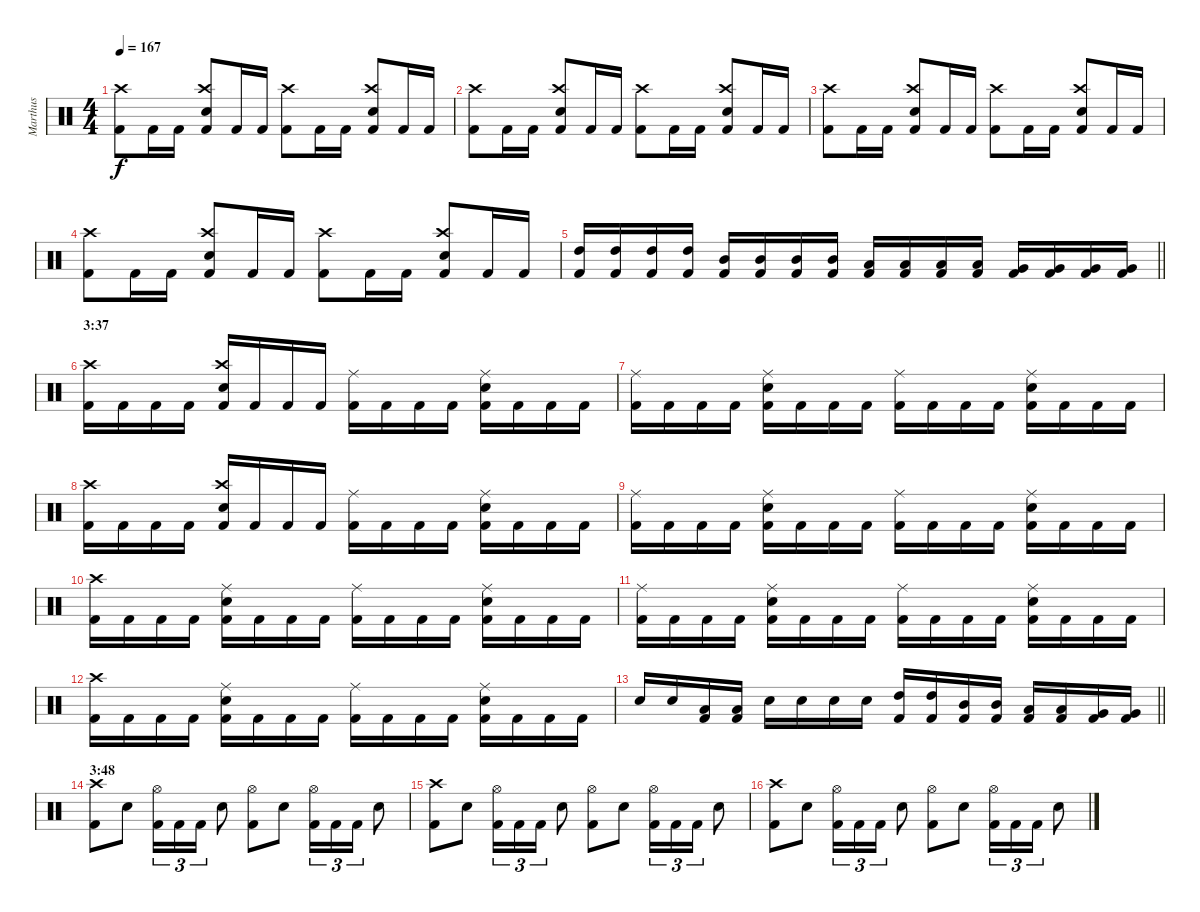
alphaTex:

\track ("Marthus" "Marthus") {instrument percussion}
\staff {score}
\articulation defaults
\ts (4 4)
\tempo 167
\clef neutral
\ks c
("Kick (hit) 2" "Crash high (hit)").8{dy f} "Kick (hit) 2".16 "Kick (hit) 2".16 ("Kick (hit) 2" "Snare (hit) 2" "Crash high (hit)").8 "Kick (hit) 2".16 "Kick (hit) 2".16 ("Kick (hit) 2" "Crash high (hit)").8 "Kick (hit) 2".16 "Kick (hit) 2".16 ("Kick (hit) 2" "Snare (hit) 2" "Crash high (hit)").8 "Kick (hit) 2".16 "Kick (hit) 2".16 |
("Kick (hit) 2" "Crash high (hit)").8 "Kick (hit) 2".16 "Kick (hit) 2".16 ("Kick (hit) 2" "Snare (hit) 2" "Crash high (hit)").8 "Kick (hit) 2".16 "Kick (hit) 2".16 ("Kick (hit) 2" "Crash high (hit)").8 "Kick (hit) 2".16 "Kick (hit) 2".16 ("Kick (hit) 2" "Snare (hit) 2" "Crash high (hit)").8 "Kick (hit) 2".16 "Kick (hit) 2".16 |
("Kick (hit) 2" "Crash high (hit)").8 "Kick (hit) 2".16 "Kick (hit) 2".16 ("Kick (hit) 2" "Snare (hit) 2" "Crash high (hit)").8 "Kick (hit) 2".16 "Kick (hit) 2".16 ("Kick (hit) 2" "Crash high (hit)").8 "Kick (hit) 2".16 "Kick (hit) 2".16 ("Kick (hit) 2" "Snare (hit) 2" "Crash high (hit)").8 "Kick (hit) 2".16 "Kick (hit) 2".16 |
("Kick (hit) 2" "Crash high (hit)").8 "Kick (hit) 2".16 "Kick (hit) 2".16 ("Kick (hit) 2" "Snare (hit) 2" "Crash high (hit)").8 "Kick (hit) 2".16 "Kick (hit) 2".16 ("Kick (hit) 2" "Crash high (hit)").8 "Kick (hit) 2".16 "Kick (hit) 2".16 ("Kick (hit) 2" "Snare (hit) 2" "Crash high (hit)").8 "Kick (hit) 2".16 "Kick (hit) 2".16 |
\barLineRight lightlight
("Kick (hit) 2" "High Tom (hit)").16 ("Kick (hit) 2" "High Tom (hit)").16 ("Kick (hit) 2" "High Tom (hit)").16 ("Kick (hit) 2" "High Tom (hit)").16 ("Kick (hit) 2" "Mid Tom (hit)").16 ("Kick (hit) 2" "Mid Tom (hit)").16 ("Kick (hit) 2" "Mid Tom (hit)").16 ("Kick (hit) 2" "Mid Tom (hit)").16 ("Kick (hit) 2" "Low Tom (hit)").16 ("Kick (hit) 2" "Low Tom (hit)").16 ("Kick (hit) 2" "Low Tom (hit)").16 ("Kick (hit) 2" "Low Tom (hit)").16 ("Kick (hit) 2" "Very Low Tom (hit)").16 ("Kick (hit) 2" "Very Low Tom (hit)").16 ("Kick (hit) 2" "Very Low Tom (hit)").16 ("Kick (hit) 2" "Very Low Tom (hit)").16 |
\section ("" "3:37")
("Kick (hit) 2" "Crash high (hit)").16 "Kick (hit) 2".16 "Kick (hit) 2".16 "Kick (hit) 2".16 ("Kick (hit) 2" "Snare (hit) 2" "Crash high (hit)").16 "Kick (hit) 2".16 "Kick (hit) 2".16 "Kick (hit) 2".16 ("Kick (hit) 2" "Ride (middle)").16 "Kick (hit) 2".16 "Kick (hit) 2".16 "Kick (hit) 2".16 ("Kick (hit) 2" "Snare (hit) 2" "Ride (middle)").16 "Kick (hit) 2".16 "Kick (hit) 2".16 "Kick (hit) 2".16 |
("Kick (hit) 2" "Ride (middle)").16 "Kick (hit) 2".16 "Kick (hit) 2".16 "Kick (hit) 2".16 ("Kick (hit) 2" "Snare (hit) 2" "Ride (middle)").16 "Kick (hit) 2".16 "Kick (hit) 2".16 "Kick (hit) 2".16 ("Kick (hit) 2" "Ride (middle)").16 "Kick (hit) 2".16 "Kick (hit) 2".16 "Kick (hit) 2".16 ("Kick (hit) 2" "Snare (hit) 2" "Ride (middle)").16 "Kick (hit) 2".16 "Kick (hit) 2".16 "Kick (hit) 2".16 |
("Kick (hit) 2" "Crash high (hit)").16 "Kick (hit) 2".16 "Kick (hit) 2".16 "Kick (hit) 2".16 ("Kick (hit) 2" "Snare (hit) 2" "Crash high (hit)").16 "Kick (hit) 2".16 "Kick (hit) 2".16 "Kick (hit) 2".16 ("Kick (hit) 2" "Ride (middle)").16 "Kick (hit) 2".16 "Kick (hit) 2".16 "Kick (hit) 2".16 ("Kick (hit) 2" "Snare (hit) 2" "Ride (middle)").16 "Kick (hit) 2".16 "Kick (hit) 2".16 "Kick (hit) 2".16 |
("Kick (hit) 2" "Ride (middle)").16 "Kick (hit) 2".16 "Kick (hit) 2".16 "Kick (hit) 2".16 ("Kick (hit) 2" "Snare (hit) 2" "Ride (middle)").16 "Kick (hit) 2".16 "Kick (hit) 2".16 "Kick (hit) 2".16 ("Kick (hit) 2" "Ride (middle)").16 "Kick (hit) 2".16 "Kick (hit) 2".16 "Kick (hit) 2".16 ("Kick (hit) 2" "Snare (hit) 2" "Ride (middle)").16 "Kick (hit) 2".16 "Kick (hit) 2".16 "Kick (hit) 2".16 |
("Kick (hit) 2" "Crash high (hit)").16 "Kick (hit) 2".16 "Kick (hit) 2".16 "Kick (hit) 2".16 ("Kick (hit) 2" "Snare (hit) 2" "Ride (middle)").16 "Kick (hit) 2".16 "Kick (hit) 2".16 "Kick (hit) 2".16 ("Kick (hit) 2" "Ride (middle)").16 "Kick (hit) 2".16 "Kick (hit) 2".16 "Kick (hit) 2".16 ("Kick (hit) 2" "Snare (hit) 2" "Ride (middle)").16 "Kick (hit) 2".16 "Kick (hit) 2".16 "Kick (hit) 2".16 |
("Kick (hit) 2" "Ride (middle)").16 "Kick (hit) 2".16 "Kick (hit) 2".16 "Kick (hit) 2".16 ("Kick (hit) 2" "Snare (hit) 2" "Ride (middle)").16 "Kick (hit) 2".16 "Kick (hit) 2".16 "Kick (hit) 2".16 ("Kick (hit) 2" "Ride (middle)").16 "Kick (hit) 2".16 "Kick (hit) 2".16 "Kick (hit) 2".16 ("Kick (hit) 2" "Snare (hit) 2" "Ride (middle)").16 "Kick (hit) 2".16 "Kick (hit) 2".16 "Kick (hit) 2".16 |
("Kick (hit) 2" "Crash high (hit)").16 "Kick (hit) 2".16 "Kick (hit) 2".16 "Kick (hit) 2".16 ("Kick (hit) 2" "Snare (hit) 2" "Ride (middle)").16 "Kick (hit) 2".16 "Kick (hit) 2".16 "Kick (hit) 2".16 ("Kick (hit) 2" "Ride (middle)").16 "Kick (hit) 2".16 "Kick (hit) 2".16 "Kick (hit) 2".16 ("Kick (hit) 2" "Snare (hit) 2" "Ride (middle)").16 "Kick (hit) 2".16 "Kick (hit) 2".16 "Kick (hit) 2".16 |
\barLineRight lightlight "Snare (hit) 2".16 "Snare (hit) 2".16
("Kick (hit) 2" "Low Tom (hit)").16 ("Kick (hit) 2" "Low Tom (hit)").16 "Snare (hit) 2".16 "Snare (hit) 2".16 "Snare (hit) 2".16 "Snare (hit) 2".16 ("Kick (hit) 2" "High Tom (hit)").16 ("Kick (hit) 2" "High Tom (hit)").16 ("Kick (hit) 2" "Mid Tom (hit)").16 ("Kick (hit) 2" "Mid Tom (hit)").16 ("Kick (hit) 2" "Low Tom (hit)").16 ("Kick (hit) 2" "Low Tom (hit)").16 ("Kick (hit) 2" "Very Low Tom (hit)").16 ("Kick (hit) 2" "Very Low Tom (hit)").16 |
\section ("" "3:48")
("Kick (hit) 2" "Crash high (hit)").8 "Snare (hit) 2".8 ("Kick (hit) 2" "Hi-Hat (open)").16{tu (3 2)} "Kick (hit) 2".16{tu (3 2)} "Kick (hit) 2".16{tu (3 2)} "Snare (hit) 2".8 ("Kick (hit) 2" "Hi-Hat (open)").8 "Snare (hit) 2".8 ("Kick (hit) 2" "Hi-Hat (open)").16{tu (3 2)} "Kick (hit) 2".16{tu (3 2)} "Kick (hit) 2".16{tu (3 2)} "Snare (hit) 2".8 |
("Kick (hit) 2" "Crash high (hit)").8 "Snare (hit) 2".8 ("Kick (hit) 2" "Hi-Hat (open)").16{tu (3 2)} "Kick (hit) 2".16{tu (3 2)} "Kick (hit) 2".16{tu (3 2)} "Snare (hit) 2".8 ("Kick (hit) 2" "Hi-Hat (open)").8 "Snare (hit) 2".8 ("Kick (hit) 2" "Hi-Hat (open)").16{tu (3 2)} "Kick (hit) 2".16{tu (3 2)} "Kick (hit) 2".16{tu (3 2)} "Snare (hit) 2".8 |
("Kick (hit) 2" "Crash high (hit)").8 "Snare (hit) 2".8 ("Kick (hit) 2" "Hi-Hat (open)").16{tu (3 2)} "Kick (hit) 2".16{tu (3 2)} "Kick (hit) 2".16{tu (3 2)} "Snare (hit) 2".8 ("Kick (hit) 2" "Hi-Hat (open)").8 "Snare (hit) 2".8 ("Kick (hit) 2" "Hi-Hat (open)").16{tu (3 2)} "Kick (hit) 2".16{tu (3 2)} "Kick (hit) 2".16{tu (3 2)} "Snare (hit) 2".8
